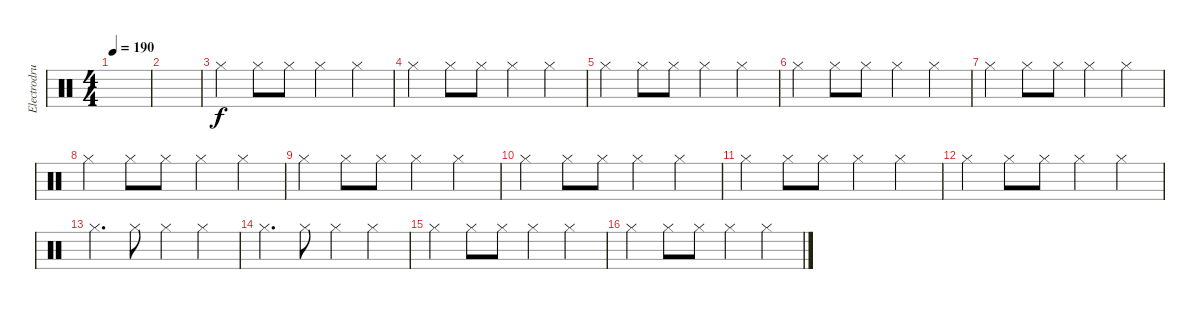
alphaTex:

\track ("Electrodrums1" "Electrodru") {instrument percussion}
\staff {score}
\articulation defaults
\ts (4 4)
\tempo 190
\clef neutral
\ks c
|
|
"Hi-Hat (closed)".4 "Hi-Hat (closed)".8 "Hi-Hat (closed)".8 "Hi-Hat (closed)".4 "Hi-Hat (closed)".4 |
"Hi-Hat (closed)".4 "Hi-Hat (closed)".8 "Hi-Hat (closed)".8 "Hi-Hat (closed)".4 "Hi-Hat (closed)".4 |
"Hi-Hat (closed)".4 "Hi-Hat (closed)".8 "Hi-Hat (closed)".8 "Hi-Hat (closed)".4 "Hi-Hat (closed)".4 |
"Hi-Hat (closed)".4 "Hi-Hat (closed)".8 "Hi-Hat (closed)".8 "Hi-Hat (closed)".4 "Hi-Hat (closed)".4 |
"Hi-Hat (closed)".4 "Hi-Hat (closed)".8 "Hi-Hat (closed)".8 "Hi-Hat (closed)".4 "Hi-Hat (closed)".4 |
"Hi-Hat (closed)".4 "Hi-Hat (closed)".8 "Hi-Hat (closed)".8 "Hi-Hat (closed)".4 "Hi-Hat (closed)".4 |
"Hi-Hat (closed)".4 "Hi-Hat (closed)".8 "Hi-Hat (closed)".8 "Hi-Hat (closed)".4 "Hi-Hat (closed)".4 |
"Hi-Hat (closed)".4 "Hi-Hat (closed)".8 "Hi-Hat (closed)".8 "Hi-Hat (closed)".4 "Hi-Hat (closed)".4 |
"Hi-Hat (closed)".4 "Hi-Hat (closed)".8 "Hi-Hat (closed)".8 "Hi-Hat (closed)".4 "Hi-Hat (closed)".4 |
"Hi-Hat (closed)".4 "Hi-Hat (closed)".8 "Hi-Hat (closed)".8 "Hi-Hat (closed)".4 "Hi-Hat (closed)".4 |
"Hi-Hat (closed)".4{d} "Hi-Hat (closed)".8 "Hi-Hat (closed)".4 "Hi-Hat (closed)".4 |
"Hi-Hat (closed)".4{d} "Hi-Hat (closed)".8 "Hi-Hat (closed)".4 "Hi-Hat (closed)".4 |
"Hi-Hat (closed)".4 "Hi-Hat (closed)".8 "Hi-Hat (closed)".8 "Hi-Hat (closed)".4 "Hi-Hat (closed)".4 |
"Hi-Hat (closed)".4 "Hi-Hat (closed)".8 "Hi-Hat (closed)".8 "Hi-Hat (closed)".4 "Hi-Hat (closed)".4
